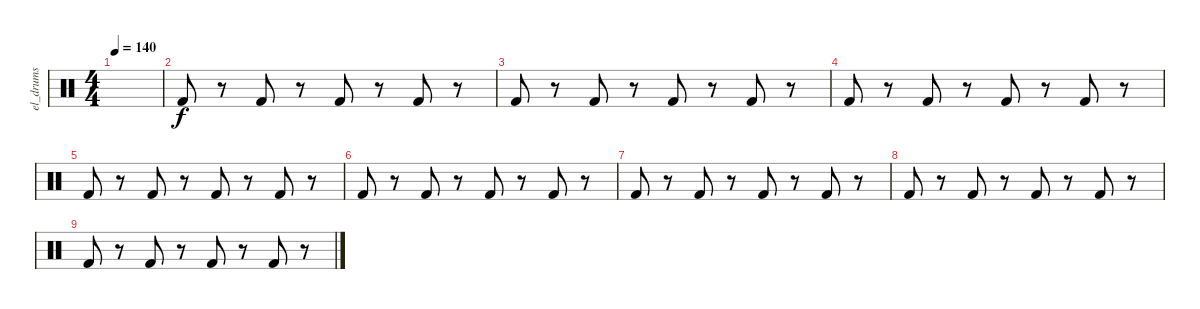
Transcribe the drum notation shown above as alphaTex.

\track ("el_drums" "el_drums") {instrument percussion}
\staff {score}
\articulation defaults
\ts (4 4)
\tempo 140
\clef neutral
\ks c
|
"Kick (hit) 2".8 r.8 "Kick (hit) 2".8 r.8 "Kick (hit) 2".8 r.8 "Kick (hit) 2".8 r.8 |
"Kick (hit) 2".8 r.8 "Kick (hit) 2".8 r.8 "Kick (hit) 2".8 r.8 "Kick (hit) 2".8 r.8 |
"Kick (hit) 2".8 r.8 "Kick (hit) 2".8 r.8 "Kick (hit) 2".8 r.8 "Kick (hit) 2".8 r.8 |
"Kick (hit) 2".8 r.8 "Kick (hit) 2".8 r.8 "Kick (hit) 2".8 r.8 "Kick (hit) 2".8 r.8 |
"Kick (hit) 2".8 r.8 "Kick (hit) 2".8 r.8 "Kick (hit) 2".8 r.8 "Kick (hit) 2".8 r.8 |
"Kick (hit) 2".8 r.8 "Kick (hit) 2".8 r.8 "Kick (hit) 2".8 r.8 "Kick (hit) 2".8 r.8 |
"Kick (hit) 2".8 r.8 "Kick (hit) 2".8 r.8 "Kick (hit) 2".8 r.8 "Kick (hit) 2".8 r.8 |
"Kick (hit) 2".8 r.8 "Kick (hit) 2".8 r.8 "Kick (hit) 2".8 r.8 "Kick (hit) 2".8 r.8
